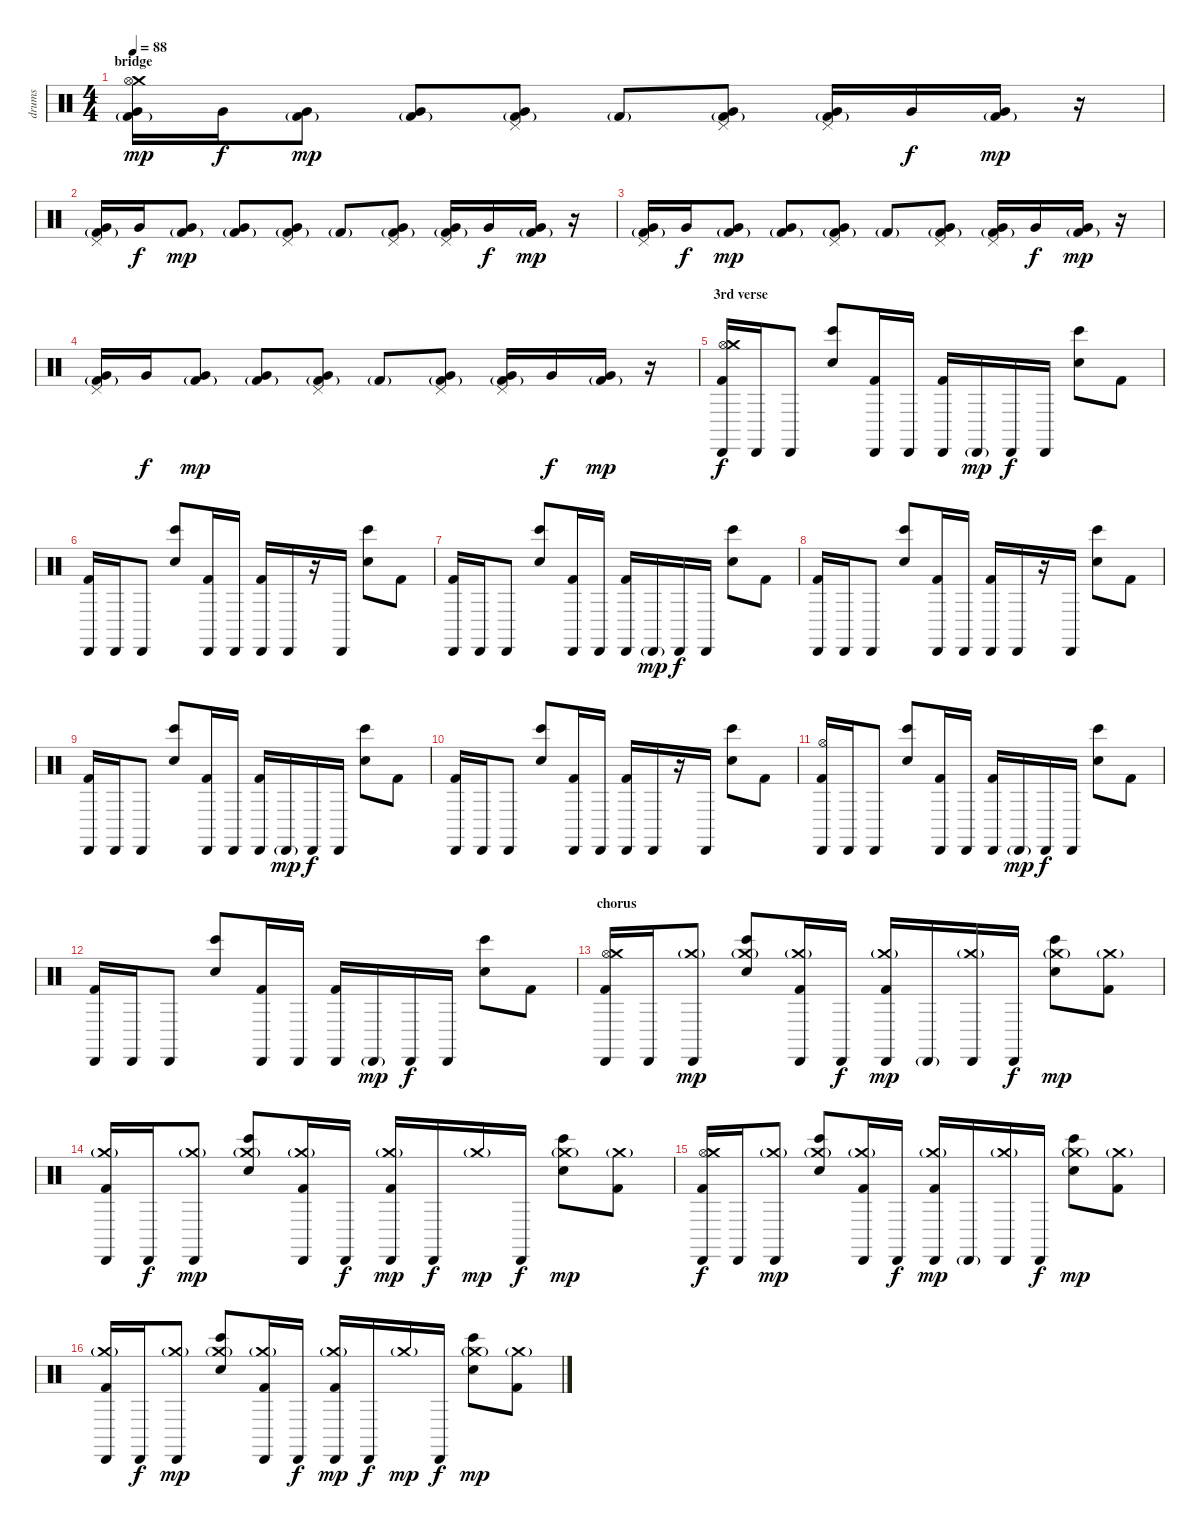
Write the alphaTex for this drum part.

\track ("drums" "drums") {instrument percussion}
\staff {score}
\articulation defaults
\ts (4 4)
\section ("" "bridge")
\tempo 88
\clef neutral
\ks c
("Kick (hit) 2"{g} "Very Low Tom (hit)" "Crash medium (hit)" "Hi-Hat (open)").16{dy mp} "Very Low Tom (hit)".16{dy f} ("Kick (hit) 2"{g} "Very Low Tom (hit)").8{dy mp} ("Kick (hit) 2"{g} "Very Low Tom (hit)").8 ("Kick (hit) 2"{g} "Very Low Tom (hit)" "Pedal Hi-Hat (hit)").8 "Kick (hit) 2"{g}.8 ("Kick (hit) 2"{g} "Very Low Tom (hit)" "Pedal Hi-Hat (hit)").8 ("Kick (hit) 2"{g} "Very Low Tom (hit)" "Pedal Hi-Hat (hit)").16 "Very Low Tom (hit)".16{dy f} ("Kick (hit) 2"{g} "Very Low Tom (hit)").16{dy mp} r.16 |
("Kick (hit) 2"{g} "Very Low Tom (hit)" "Pedal Hi-Hat (hit)").16 "Very Low Tom (hit)".16{dy f} ("Kick (hit) 2"{g} "Very Low Tom (hit)").8{dy mp} ("Kick (hit) 2"{g} "Very Low Tom (hit)").8 ("Kick (hit) 2"{g} "Very Low Tom (hit)" "Pedal Hi-Hat (hit)").8 "Kick (hit) 2"{g}.8 ("Kick (hit) 2"{g} "Very Low Tom (hit)" "Pedal Hi-Hat (hit)").8 ("Kick (hit) 2"{g} "Very Low Tom (hit)" "Pedal Hi-Hat (hit)").16 "Very Low Tom (hit)".16{dy f} ("Kick (hit) 2"{g} "Very Low Tom (hit)").16{dy mp} r.16 |
("Kick (hit) 2"{g} "Very Low Tom (hit)" "Pedal Hi-Hat (hit)").16 "Very Low Tom (hit)".16{dy f} ("Kick (hit) 2"{g} "Very Low Tom (hit)").8{dy mp} ("Kick (hit) 2"{g} "Very Low Tom (hit)").8 ("Kick (hit) 2"{g} "Very Low Tom (hit)" "Pedal Hi-Hat (hit)").8 "Kick (hit) 2"{g}.8 ("Kick (hit) 2"{g} "Very Low Tom (hit)" "Pedal Hi-Hat (hit)").8 ("Kick (hit) 2"{g} "Very Low Tom (hit)" "Pedal Hi-Hat (hit)").16 "Very Low Tom (hit)".16{dy f} ("Kick (hit) 2"{g} "Very Low Tom (hit)").16{dy mp} r.16 |
("Kick (hit) 2"{g} "Very Low Tom (hit)" "Pedal Hi-Hat (hit)").16 "Very Low Tom (hit)".16{dy f} ("Kick (hit) 2"{g} "Very Low Tom (hit)").8{dy mp} ("Kick (hit) 2"{g} "Very Low Tom (hit)").8 ("Kick (hit) 2"{g} "Very Low Tom (hit)" "Pedal Hi-Hat (hit)").8 "Kick (hit) 2"{g}.8 ("Kick (hit) 2"{g} "Very Low Tom (hit)" "Pedal Hi-Hat (hit)").8 ("Kick (hit) 2"{g} "Very Low Tom (hit)" "Pedal Hi-Hat (hit)").16 "Very Low Tom (hit)".16{dy f} ("Kick (hit) 2"{g} "Very Low Tom (hit)").16{dy mp} r.16 |
\section ("" "3rd verse")
("Cabasa (hit)" "Kick (hit) 2" "Hi-Hat (open)" "Crash medium (hit)").16{dy f} "Cabasa (hit)".16 "Cabasa (hit)".8 ("Hand Clap (hit)" "Bongo High (hit)").8 ("Cabasa (hit)" "Kick (hit) 2").16 "Cabasa (hit)".16 ("Cabasa (hit)" "Kick (hit) 2").16 "Cabasa (hit)"{g}.16{dy mp} "Cabasa (hit)".16{dy f} "Cabasa (hit)".16 ("Hand Clap (hit)" "Bongo High (hit)").8 "Kick (hit) 2".8 |
("Cabasa (hit)" "Kick (hit) 2").16 "Cabasa (hit)".16 "Cabasa (hit)".8 ("Bongo High (hit)" "Hand Clap (hit)").8 ("Cabasa (hit)" "Kick (hit) 2").16 "Cabasa (hit)".16 ("Cabasa (hit)" "Kick (hit) 2").16 "Cabasa (hit)".16 r.16 "Cabasa (hit)".16 ("Bongo High (hit)" "Hand Clap (hit)").8 "Kick (hit) 2".8 |
("Cabasa (hit)" "Kick (hit) 2").16 "Cabasa (hit)".16 "Cabasa (hit)".8 ("Hand Clap (hit)" "Bongo High (hit)").8 ("Cabasa (hit)" "Kick (hit) 2").16 "Cabasa (hit)".16 ("Cabasa (hit)" "Kick (hit) 2").16 "Cabasa (hit)"{g}.16{dy mp} "Cabasa (hit)".16{dy f} "Cabasa (hit)".16 ("Hand Clap (hit)" "Bongo High (hit)").8 "Kick (hit) 2".8 |
("Cabasa (hit)" "Kick (hit) 2").16 "Cabasa (hit)".16 "Cabasa (hit)".8 ("Bongo High (hit)" "Hand Clap (hit)").8 ("Cabasa (hit)" "Kick (hit) 2").16 "Cabasa (hit)".16 ("Cabasa (hit)" "Kick (hit) 2").16 "Cabasa (hit)".16 r.16 "Cabasa (hit)".16 ("Bongo High (hit)" "Hand Clap (hit)").8 "Kick (hit) 2".8 |
("Cabasa (hit)" "Kick (hit) 2").16 "Cabasa (hit)".16 "Cabasa (hit)".8 ("Hand Clap (hit)" "Bongo High (hit)").8 ("Cabasa (hit)" "Kick (hit) 2").16 "Cabasa (hit)".16 ("Cabasa (hit)" "Kick (hit) 2").16 "Cabasa (hit)"{g}.16{dy mp} "Cabasa (hit)".16{dy f} "Cabasa (hit)".16 ("Hand Clap (hit)" "Bongo High (hit)").8 "Kick (hit) 2".8 |
("Cabasa (hit)" "Kick (hit) 2").16 "Cabasa (hit)".16 "Cabasa (hit)".8 ("Bongo High (hit)" "Hand Clap (hit)").8 ("Cabasa (hit)" "Kick (hit) 2").16 "Cabasa (hit)".16 ("Cabasa (hit)" "Kick (hit) 2").16 "Cabasa (hit)".16 r.16 "Cabasa (hit)".16 ("Bongo High (hit)" "Hand Clap (hit)").8 "Kick (hit) 2".8 |
("Cabasa (hit)" "Kick (hit) 2" "Hi-Hat (open)").16 "Cabasa (hit)".16 "Cabasa (hit)".8 ("Hand Clap (hit)" "Bongo High (hit)").8 ("Cabasa (hit)" "Kick (hit) 2").16 "Cabasa (hit)".16 ("Cabasa (hit)" "Kick (hit) 2").16 "Cabasa (hit)"{g}.16{dy mp} "Cabasa (hit)".16{dy f} "Cabasa (hit)".16 ("Hand Clap (hit)" "Bongo High (hit)").8 "Kick (hit) 2".8 |
("Cabasa (hit)" "Kick (hit) 2").16 "Cabasa (hit)".16 "Cabasa (hit)".8 ("Hand Clap (hit)" "Bongo High (hit)").8 ("Cabasa (hit)" "Kick (hit) 2").16 "Cabasa (hit)".16 ("Cabasa (hit)" "Kick (hit) 2").16 "Cabasa (hit)"{g}.16{dy mp} "Cabasa (hit)".16{dy f} "Cabasa (hit)".16 ("Hand Clap (hit)" "Bongo High (hit)").8 "Kick (hit) 2".8 |
\section ("" "chorus")
("Cabasa (hit)" "Kick (hit) 2" "Hi-Hat (open)" "Crash medium (hit)").16 "Cabasa (hit)".16 ("Cabasa (hit)" "Crash medium (hit)"{g}).8{dy mp} ("Hand Clap (hit)" "Bongo High (hit)" "Crash medium (hit)"{g}).8 ("Cabasa (hit)" "Kick (hit) 2" "Crash medium (hit)"{g}).16 "Cabasa (hit)".16{dy f} ("Cabasa (hit)" "Kick (hit) 2" "Crash medium (hit)"{g}).16{dy mp} "Cabasa (hit)"{g}.16 ("Cabasa (hit)" "Crash medium (hit)"{g}).16 "Cabasa (hit)".16{dy f} ("Hand Clap (hit)" "Bongo High (hit)" "Crash medium (hit)"{g}).8{dy mp} ("Kick (hit) 2" "Crash medium (hit)"{g}).8 |
("Cabasa (hit)" "Kick (hit) 2" "Crash medium (hit)"{g}).16 "Cabasa (hit)".16{dy f} ("Cabasa (hit)" "Crash medium (hit)"{g}).8{dy mp} ("Bongo High (hit)" "Hand Clap (hit)" "Crash medium (hit)"{g}).8 ("Cabasa (hit)" "Kick (hit) 2" "Crash medium (hit)"{g}).16 "Cabasa (hit)".16{dy f} ("Cabasa (hit)" "Kick (hit) 2" "Crash medium (hit)"{g}).16{dy mp} "Cabasa (hit)".16{dy f} "Crash medium (hit)"{g}.16{dy mp} "Cabasa (hit)".16{dy f} ("Bongo High (hit)" "Hand Clap (hit)" "Crash medium (hit)"{g}).8{dy mp} ("Kick (hit) 2" "Crash medium (hit)"{g}).8 |
("Cabasa (hit)" "Kick (hit) 2" "Hi-Hat (open)" "Crash medium (hit)").16{dy f} "Cabasa (hit)".16 ("Cabasa (hit)" "Crash medium (hit)"{g}).8{dy mp} ("Hand Clap (hit)" "Bongo High (hit)" "Crash medium (hit)"{g}).8 ("Cabasa (hit)" "Kick (hit) 2" "Crash medium (hit)"{g}).16 "Cabasa (hit)".16{dy f} ("Cabasa (hit)" "Kick (hit) 2" "Crash medium (hit)"{g}).16{dy mp} "Cabasa (hit)"{g}.16 ("Cabasa (hit)" "Crash medium (hit)"{g}).16 "Cabasa (hit)".16{dy f} ("Hand Clap (hit)" "Bongo High (hit)" "Crash medium (hit)"{g}).8{dy mp} ("Kick (hit) 2" "Crash medium (hit)"{g}).8 |
("Cabasa (hit)" "Kick (hit) 2" "Crash medium (hit)"{g}).16 "Cabasa (hit)".16{dy f} ("Cabasa (hit)" "Crash medium (hit)"{g}).8{dy mp} ("Bongo High (hit)" "Hand Clap (hit)" "Crash medium (hit)"{g}).8 ("Cabasa (hit)" "Kick (hit) 2" "Crash medium (hit)"{g}).16 "Cabasa (hit)".16{dy f} ("Cabasa (hit)" "Kick (hit) 2" "Crash medium (hit)"{g}).16{dy mp} "Cabasa (hit)".16{dy f} "Crash medium (hit)"{g}.16{dy mp} "Cabasa (hit)".16{dy f} ("Bongo High (hit)" "Hand Clap (hit)" "Crash medium (hit)"{g}).8{dy mp} ("Kick (hit) 2" "Crash medium (hit)"{g}).8
